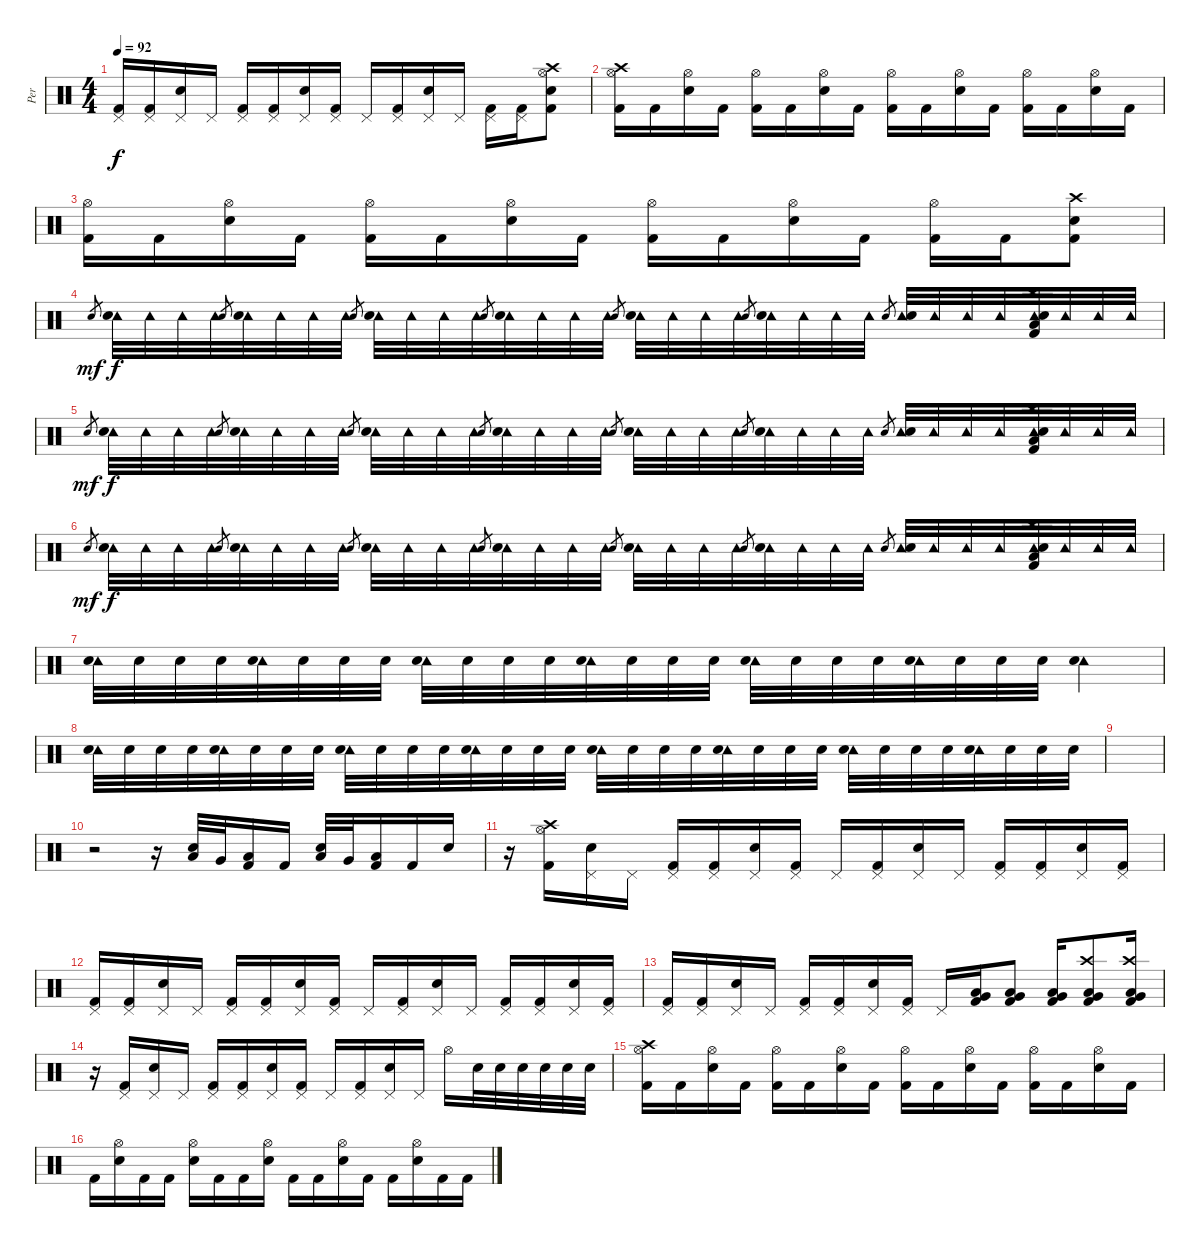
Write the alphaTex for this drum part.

\track ("Per" "Per") {instrument percussion}
\staff {score}
\articulation defaults
\ts (4 4)
\tempo 92
\clef neutral
\ks c
("Pedal Hi-Hat (hit)" "Kick (hit) 2").16{dy f} ("Pedal Hi-Hat (hit)" "Kick (hit) 2").16 ("Pedal Hi-Hat (hit)" "Snare (hit) 2").16 "Pedal Hi-Hat (hit)".16 ("Pedal Hi-Hat (hit)" "Kick (hit) 2").16 ("Pedal Hi-Hat (hit)" "Kick (hit) 2").16 ("Pedal Hi-Hat (hit)" "Snare (hit) 2").16 ("Pedal Hi-Hat (hit)" "Kick (hit) 2").16 "Pedal Hi-Hat (hit)".16 ("Pedal Hi-Hat (hit)" "Kick (hit) 2").16 ("Pedal Hi-Hat (hit)" "Snare (hit) 2").16 "Pedal Hi-Hat (hit)".16 ("Pedal Hi-Hat (hit)" "Kick (hit) 2").16 ("Pedal Hi-Hat (hit)" "Kick (hit) 2").16 ("Crash high (hit)" "Hi-Hat (open)" "Snare (hit) 2" "Kick (hit) 2").8 |
("Crash high (hit)" "Hi-Hat (open)" "Kick (hit) 2").16 "Kick (hit) 2".16 ("Hi-Hat (open)" "Snare (hit) 2").16 "Kick (hit) 2".16 ("Hi-Hat (open)" "Kick (hit) 2").16 "Kick (hit) 2".16 ("Hi-Hat (open)" "Snare (hit) 2").16 "Kick (hit) 2".16 ("Hi-Hat (open)" "Kick (hit) 2").16 "Kick (hit) 2".16 ("Hi-Hat (open)" "Snare (hit) 2").16 "Kick (hit) 2".16 ("Hi-Hat (open)" "Kick (hit) 2").16 "Kick (hit) 2".16 ("Hi-Hat (open)" "Snare (hit) 2").16 "Kick (hit) 2".16 |
("Hi-Hat (open)" "Kick (hit) 2").16 "Kick (hit) 2".16 ("Hi-Hat (open)" "Snare (hit) 2").16 "Kick (hit) 2".16 ("Hi-Hat (open)" "Kick (hit) 2").16 "Kick (hit) 2".16 ("Hi-Hat (open)" "Snare (hit) 2").16 "Kick (hit) 2".16 ("Hi-Hat (open)" "Kick (hit) 2").16 "Kick (hit) 2".16 ("Hi-Hat (open)" "Snare (hit) 2").16 "Kick (hit) 2".16 ("Hi-Hat (open)" "Kick (hit) 2").16 "Kick (hit) 2".16 ("Crash high (hit)" "Snare (hit) 2" "Kick (hit) 2").8 |
"Snare (hit) 2".8{gr dy mf} ("Tambourine (hit)" "Snare (hit) 2").32{dy f} "Tambourine (hit)".32 "Tambourine (hit)".32 "Tambourine (hit)".32 "Snare (hit) 2".8{gr} ("Tambourine (hit)" "Snare (hit) 2").32 "Tambourine (hit)".32 "Tambourine (hit)".32 "Tambourine (hit)".32 "Snare (hit) 2".8{gr} ("Tambourine (hit)" "Snare (hit) 2").32 "Tambourine (hit)".32 "Tambourine (hit)".32 "Tambourine (hit)".32 "Snare (hit) 2".8{gr} ("Tambourine (hit)" "Snare (hit) 2").32 "Tambourine (hit)".32 "Tambourine (hit)".32 "Tambourine (hit)".32 "Snare (hit) 2".8{gr} ("Tambourine (hit)" "Snare (hit) 2").32 "Tambourine (hit)".32 "Tambourine (hit)".32 "Tambourine (hit)".32 "Snare (hit) 2".8{gr} ("Tambourine (hit)" "Snare (hit) 2").32 "Tambourine (hit)".32 "Tambourine (hit)".32 "Tambourine (hit)".32 "Snare (hit) 2".8{gr} ("Tambourine (hit)" "Snare (hit) 2").32 "Tambourine (hit)".32 "Tambourine (hit)".32 "Tambourine (hit)".32 ("Crash high (hit)" "Tambourine (hit)" "Low Floor Tom (hit)" "Snare (hit) 2" "Kick (hit) 2").32 "Tambourine (hit)".32 "Tambourine (hit)".32 "Tambourine (hit)".32 |
"Snare (hit) 2".8{gr dy mf} ("Tambourine (hit)" "Snare (hit) 2").32{dy f} "Tambourine (hit)".32 "Tambourine (hit)".32 "Tambourine (hit)".32 "Snare (hit) 2".8{gr} ("Tambourine (hit)" "Snare (hit) 2").32 "Tambourine (hit)".32 "Tambourine (hit)".32 "Tambourine (hit)".32 "Snare (hit) 2".8{gr} ("Tambourine (hit)" "Snare (hit) 2").32 "Tambourine (hit)".32 "Tambourine (hit)".32 "Tambourine (hit)".32 "Snare (hit) 2".8{gr} ("Tambourine (hit)" "Snare (hit) 2").32 "Tambourine (hit)".32 "Tambourine (hit)".32 "Tambourine (hit)".32 "Snare (hit) 2".8{gr} ("Tambourine (hit)" "Snare (hit) 2").32 "Tambourine (hit)".32 "Tambourine (hit)".32 "Tambourine (hit)".32 "Snare (hit) 2".8{gr} ("Tambourine (hit)" "Snare (hit) 2").32 "Tambourine (hit)".32 "Tambourine (hit)".32 "Tambourine (hit)".32 "Snare (hit) 2".8{gr} ("Tambourine (hit)" "Snare (hit) 2").32 "Tambourine (hit)".32 "Tambourine (hit)".32 "Tambourine (hit)".32 ("Crash high (hit)" "Tambourine (hit)" "Low Floor Tom (hit)" "Snare (hit) 2" "Kick (hit) 2").32 "Tambourine (hit)".32 "Tambourine (hit)".32 "Tambourine (hit)".32 |
"Snare (hit) 2".8{gr dy mf} ("Tambourine (hit)" "Snare (hit) 2").32{dy f} "Tambourine (hit)".32 "Tambourine (hit)".32 "Tambourine (hit)".32 "Snare (hit) 2".8{gr} ("Tambourine (hit)" "Snare (hit) 2").32 "Tambourine (hit)".32 "Tambourine (hit)".32 "Tambourine (hit)".32 "Snare (hit) 2".8{gr} ("Tambourine (hit)" "Snare (hit) 2").32 "Tambourine (hit)".32 "Tambourine (hit)".32 "Tambourine (hit)".32 "Snare (hit) 2".8{gr} ("Tambourine (hit)" "Snare (hit) 2").32 "Tambourine (hit)".32 "Tambourine (hit)".32 "Tambourine (hit)".32 "Snare (hit) 2".8{gr} ("Tambourine (hit)" "Snare (hit) 2").32 "Tambourine (hit)".32 "Tambourine (hit)".32 "Tambourine (hit)".32 "Snare (hit) 2".8{gr} ("Tambourine (hit)" "Snare (hit) 2").32 "Tambourine (hit)".32 "Tambourine (hit)".32 "Tambourine (hit)".32 "Snare (hit) 2".8{gr} ("Tambourine (hit)" "Snare (hit) 2").32 "Tambourine (hit)".32 "Tambourine (hit)".32 "Tambourine (hit)".32 ("Crash high (hit)" "Tambourine (hit)" "Low Floor Tom (hit)" "Snare (hit) 2" "Kick (hit) 2").32 "Tambourine (hit)".32 "Tambourine (hit)".32 "Tambourine (hit)".32 |
("Tambourine (hit)" "Snare (hit) 2").32 "Snare (hit) 2".32 "Snare (hit) 2".32 "Snare (hit) 2".32 ("Tambourine (hit)" "Snare (hit) 2").32 "Snare (hit) 2".32 "Snare (hit) 2".32 "Snare (hit) 2".32 ("Tambourine (hit)" "Snare (hit) 2").32 "Snare (hit) 2".32 "Snare (hit) 2".32 "Snare (hit) 2".32 ("Tambourine (hit)" "Snare (hit) 2").32 "Snare (hit) 2".32 "Snare (hit) 2".32 "Snare (hit) 2".32 ("Tambourine (hit)" "Snare (hit) 2").32 "Snare (hit) 2".32 "Snare (hit) 2".32 "Snare (hit) 2".32 ("Tambourine (hit)" "Snare (hit) 2").32 "Snare (hit) 2".32 "Snare (hit) 2".32 "Snare (hit) 2".32 ("Tambourine (hit)" "Snare (hit) 2").4 |
("Tambourine (hit)" "Snare (hit) 2").32 "Snare (hit) 2".32 "Snare (hit) 2".32 "Snare (hit) 2".32 ("Tambourine (hit)" "Snare (hit) 2").32 "Snare (hit) 2".32 "Snare (hit) 2".32 "Snare (hit) 2".32 ("Tambourine (hit)" "Snare (hit) 2").32 "Snare (hit) 2".32 "Snare (hit) 2".32 "Snare (hit) 2".32 ("Tambourine (hit)" "Snare (hit) 2").32 "Snare (hit) 2".32 "Snare (hit) 2".32 "Snare (hit) 2".32 ("Tambourine (hit)" "Snare (hit) 2").32 "Snare (hit) 2".32 "Snare (hit) 2".32 "Snare (hit) 2".32 ("Tambourine (hit)" "Snare (hit) 2").32 "Snare (hit) 2".32 "Snare (hit) 2".32 "Snare (hit) 2".32 ("Tambourine (hit)" "Snare (hit) 2").32 "Snare (hit) 2".32 "Snare (hit) 2".32 "Snare (hit) 2".32 ("Tambourine (hit)" "Snare (hit) 2").32 "Snare (hit) 2".32 "Snare (hit) 2".32 "Snare (hit) 2".32 |
|
r.2 r.16 ("Low Tom (hit)" "Snare (hit) 2").32 "Very Low Tom (hit)".32 ("Low Floor Tom (hit)" "Kick (hit) 2").16 "Kick (hit) 2".16 ("Low Tom (hit)" "Snare (hit) 2").32 "Very Low Tom (hit)".32 ("Low Floor Tom (hit)" "Kick (hit) 2").16 "Kick (hit) 2".16 "Snare (hit) 2".16 |
r.16 ("Crash high (hit)" "Hi-Hat (open)" "Kick (hit) 2").16 ("Pedal Hi-Hat (hit)" "Snare (hit) 2").16 "Pedal Hi-Hat (hit)".16 ("Pedal Hi-Hat (hit)" "Kick (hit) 2").16 ("Pedal Hi-Hat (hit)" "Kick (hit) 2").16 ("Pedal Hi-Hat (hit)" "Snare (hit) 2").16 ("Pedal Hi-Hat (hit)" "Kick (hit) 2").16 "Pedal Hi-Hat (hit)".16 ("Pedal Hi-Hat (hit)" "Kick (hit) 2").16 ("Pedal Hi-Hat (hit)" "Snare (hit) 2").16 "Pedal Hi-Hat (hit)".16 ("Pedal Hi-Hat (hit)" "Kick (hit) 2").16 ("Pedal Hi-Hat (hit)" "Kick (hit) 2").16 ("Pedal Hi-Hat (hit)" "Snare (hit) 2").16 ("Pedal Hi-Hat (hit)" "Kick (hit) 2").16 |
("Pedal Hi-Hat (hit)" "Kick (hit) 2").16 ("Pedal Hi-Hat (hit)" "Kick (hit) 2").16 ("Pedal Hi-Hat (hit)" "Snare (hit) 2").16 "Pedal Hi-Hat (hit)".16 ("Pedal Hi-Hat (hit)" "Kick (hit) 2").16 ("Pedal Hi-Hat (hit)" "Kick (hit) 2").16 ("Pedal Hi-Hat (hit)" "Snare (hit) 2").16 ("Pedal Hi-Hat (hit)" "Kick (hit) 2").16 "Pedal Hi-Hat (hit)".16 ("Pedal Hi-Hat (hit)" "Kick (hit) 2").16 ("Pedal Hi-Hat (hit)" "Snare (hit) 2").16 "Pedal Hi-Hat (hit)".16 ("Pedal Hi-Hat (hit)" "Kick (hit) 2").16 ("Pedal Hi-Hat (hit)" "Kick (hit) 2").16 ("Pedal Hi-Hat (hit)" "Snare (hit) 2").16 ("Pedal Hi-Hat (hit)" "Kick (hit) 2").16 |
("Pedal Hi-Hat (hit)" "Kick (hit) 2").16 ("Pedal Hi-Hat (hit)" "Kick (hit) 2").16 ("Pedal Hi-Hat (hit)" "Snare (hit) 2").16 "Pedal Hi-Hat (hit)".16 ("Pedal Hi-Hat (hit)" "Kick (hit) 2").16 ("Pedal Hi-Hat (hit)" "Kick (hit) 2").16 ("Pedal Hi-Hat (hit)" "Snare (hit) 2").16 ("Pedal Hi-Hat (hit)" "Kick (hit) 2").16 "Pedal Hi-Hat (hit)".16 ("Very Low Tom (hit)" "Low Floor Tom (hit)" "Kick (hit) 2").16 ("Very Low Tom (hit)" "Low Floor Tom (hit)" "Kick (hit) 2").8 ("Very Low Tom (hit)" "Low Floor Tom (hit)" "Kick (hit) 2").16 ("Crash high (hit)" "Very Low Tom (hit)" "Low Floor Tom (hit)" "Kick (hit) 2").8 ("Crash high (hit)" "Very Low Tom (hit)" "Low Floor Tom (hit)" "Kick (hit) 2").16 |
r.16 ("Pedal Hi-Hat (hit)" "Kick (hit) 2").16 ("Pedal Hi-Hat (hit)" "Snare (hit) 2").16 "Pedal Hi-Hat (hit)".16 ("Pedal Hi-Hat (hit)" "Kick (hit) 2").16 ("Pedal Hi-Hat (hit)" "Kick (hit) 2").16 ("Pedal Hi-Hat (hit)" "Snare (hit) 2").16 ("Pedal Hi-Hat (hit)" "Kick (hit) 2").16 "Pedal Hi-Hat (hit)".16 ("Pedal Hi-Hat (hit)" "Kick (hit) 2").16 ("Pedal Hi-Hat (hit)" "Snare (hit) 2").16 "Pedal Hi-Hat (hit)".16 "Hi-Hat (open)".16 "Snare (hit) 2".32 "Snare (hit) 2".32 "Snare (hit) 2".32 "Snare (hit) 2".32 "Snare (hit) 2".32 "Snare (hit) 2".32 |
("Crash high (hit)" "Hi-Hat (open)" "Kick (hit) 2").16 "Kick (hit) 2".16 ("Hi-Hat (open)" "Snare (hit) 2").16 "Kick (hit) 2".16 ("Hi-Hat (open)" "Kick (hit) 2").16 "Kick (hit) 2".16 ("Hi-Hat (open)" "Snare (hit) 2").16 "Kick (hit) 2".16 ("Hi-Hat (open)" "Kick (hit) 2").16 "Kick (hit) 2".16 ("Hi-Hat (open)" "Snare (hit) 2").16 "Kick (hit) 2".16 ("Hi-Hat (open)" "Kick (hit) 2").16 "Kick (hit) 2".16 ("Hi-Hat (open)" "Snare (hit) 2").16 "Kick (hit) 2".16 |
"Kick (hit) 2".16 ("Hi-Hat (open)" "Snare (hit) 2").16 "Kick (hit) 2".16 "Kick (hit) 2".16 ("Hi-Hat (open)" "Snare (hit) 2").16 "Kick (hit) 2".16 "Kick (hit) 2".16 ("Hi-Hat (open)" "Snare (hit) 2").16 "Kick (hit) 2".16 "Kick (hit) 2".16 ("Hi-Hat (open)" "Snare (hit) 2").16 "Kick (hit) 2".16 "Kick (hit) 2".16 ("Hi-Hat (open)" "Snare (hit) 2").16 "Kick (hit) 2".16 "Kick (hit) 2".16
